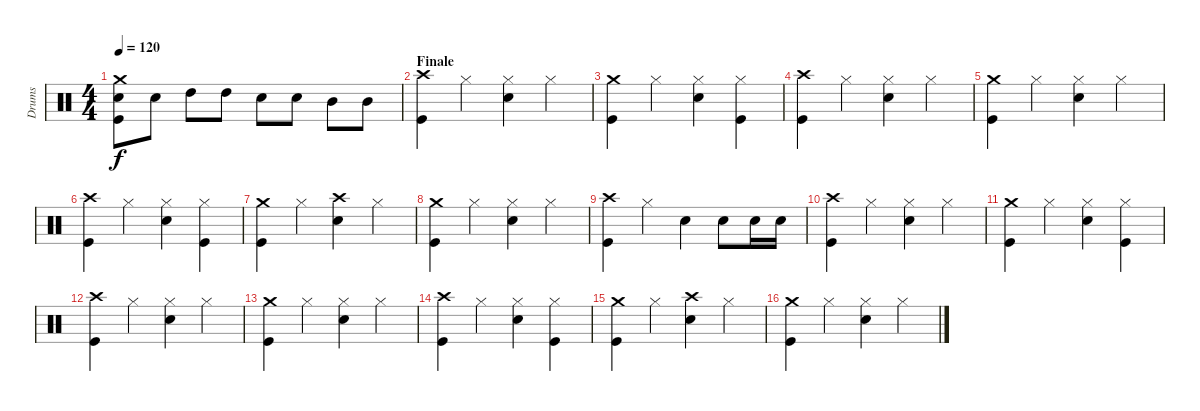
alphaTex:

\track ("Drums" "Drums") {instrument percussion}
\staff {score}
\articulation defaults
\ts (4 4)
\tempo 120
\clef neutral
\ks c
("Crash medium (hit)" "Snare (hit) 2" "Kick (hit)").8{dy f} "Snare (hit) 2".8 "High Tom (hit)".8 "High Tom (hit)".8 "Snare (hit) 2".8 "Snare (hit) 2".8 "Mid Tom (hit)".8 "Mid Tom (hit)".8 |
\section ("" "Finale")
("Crash high (hit)" "Kick (hit)").4 "Hi-Hat (closed)".4 ("Hi-Hat (closed)" "Snare (hit) 2").4 "Hi-Hat (closed)".4 |
("Crash medium (hit)" "Kick (hit)").4 "Hi-Hat (closed)".4 ("Hi-Hat (closed)" "Snare (hit) 2").4 ("Hi-Hat (closed)" "Kick (hit)").4 |
("Crash high (hit)" "Kick (hit)").4 "Hi-Hat (closed)".4 ("Hi-Hat (closed)" "Snare (hit) 2").4 "Hi-Hat (closed)".4 |
("Crash medium (hit)" "Kick (hit)").4 "Hi-Hat (closed)".4 ("Hi-Hat (closed)" "Snare (hit) 2").4 "Hi-Hat (closed)".4 |
("Crash high (hit)" "Kick (hit)").4 "Hi-Hat (closed)".4 ("Hi-Hat (closed)" "Snare (hit) 2").4 ("Hi-Hat (closed)" "Kick (hit)").4 |
("Crash medium (hit)" "Kick (hit)").4 "Hi-Hat (closed)".4 ("Crash high (hit)" "Snare (hit) 2").4 "Hi-Hat (closed)".4 |
("Crash medium (hit)" "Kick (hit)").4 "Hi-Hat (closed)".4 ("Hi-Hat (closed)" "Snare (hit) 2").4 "Hi-Hat (closed)".4 |
("Crash high (hit)" "Kick (hit)").4 "Hi-Hat (closed)".4 "Snare (hit) 2".4 "Snare (hit) 2".8 "Snare (hit) 2".16 "Snare (hit) 2".16 |
("Crash high (hit)" "Kick (hit)").4 "Hi-Hat (closed)".4 ("Hi-Hat (closed)" "Snare (hit) 2").4 "Hi-Hat (closed)".4 |
("Crash medium (hit)" "Kick (hit)").4 "Hi-Hat (closed)".4 ("Hi-Hat (closed)" "Snare (hit) 2").4 ("Hi-Hat (closed)" "Kick (hit)").4 |
("Crash high (hit)" "Kick (hit)").4 "Hi-Hat (closed)".4 ("Hi-Hat (closed)" "Snare (hit) 2").4 "Hi-Hat (closed)".4 |
("Crash medium (hit)" "Kick (hit)").4 "Hi-Hat (closed)".4 ("Hi-Hat (closed)" "Snare (hit) 2").4 "Hi-Hat (closed)".4 |
("Crash high (hit)" "Kick (hit)").4 "Hi-Hat (closed)".4 ("Hi-Hat (closed)" "Snare (hit) 2").4 ("Hi-Hat (closed)" "Kick (hit)").4 |
("Crash medium (hit)" "Kick (hit)").4 "Hi-Hat (closed)".4 ("Crash high (hit)" "Snare (hit) 2").4 "Hi-Hat (closed)".4 |
("Crash medium (hit)" "Kick (hit)").4 "Hi-Hat (closed)".4 ("Hi-Hat (closed)" "Snare (hit) 2").4 "Hi-Hat (closed)".4
